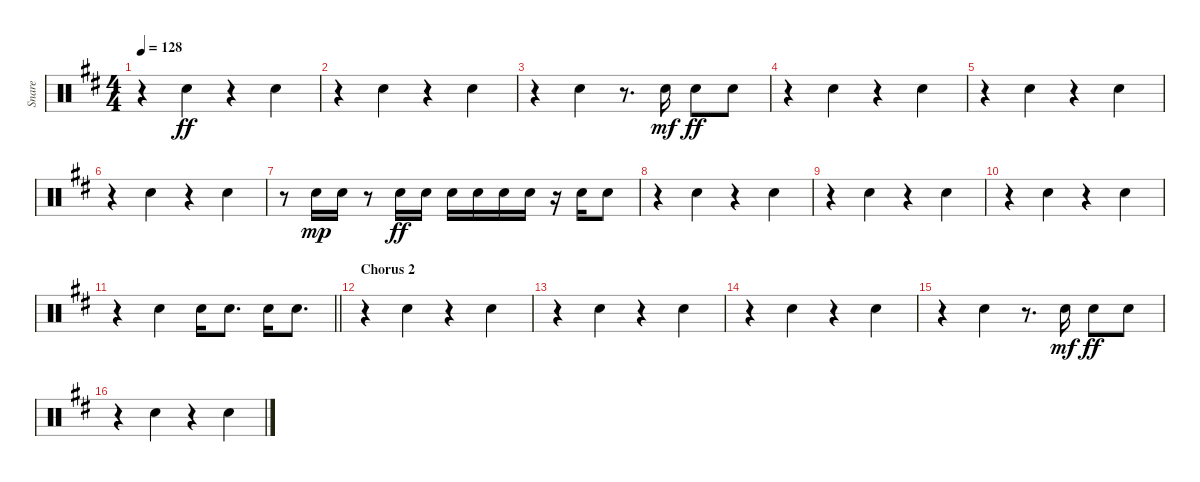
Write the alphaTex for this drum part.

\track ("Snare" "Snare") {instrument percussion}
\staff {score}
\articulation defaults
\ts (4 4)
\tempo 128
\clef neutral
\ks bminor
r.4{dy ff beam merge} "Electric Snare (hit)".4 r.4{beam merge} "Electric Snare (hit)".4 |
r.4{beam merge} "Electric Snare (hit)".4 r.4{beam merge} "Electric Snare (hit)".4 |
r.4{beam merge} "Electric Snare (hit)".4 r.8{d} "Electric Snare (hit)".16{dy mf beam split} "Electric Snare (hit)".8{dy ff} "Electric Snare (hit)".8 |
r.4{beam merge} "Electric Snare (hit)".4 r.4{beam merge} "Electric Snare (hit)".4 |
r.4{beam merge} "Electric Snare (hit)".4 r.4{beam merge} "Electric Snare (hit)".4 |
r.4{beam merge} "Electric Snare (hit)".4 r.4{beam merge} "Electric Snare (hit)".4 |
r.8 "Electric Snare (hit)".16{dy mp} "Electric Snare (hit)".16 r.8 "Electric Snare (hit)".16{dy ff} "Electric Snare (hit)".16 "Electric Snare (hit)".16 "Electric Snare (hit)".16 "Electric Snare (hit)".16 "Electric Snare (hit)".16 r.16 "Electric Snare (hit)".16 "Electric Snare (hit)".8 |
r.4{beam merge} "Electric Snare (hit)".4 r.4{beam merge} "Electric Snare (hit)".4 |
r.4{beam merge} "Electric Snare (hit)".4 r.4{beam merge} "Electric Snare (hit)".4 |
r.4{beam merge} "Electric Snare (hit)".4 r.4{beam merge} "Electric Snare (hit)".4 |
\barLineRight lightlight
r.4 "Electric Snare (hit)".4 "Electric Snare (hit)".16 "Electric Snare (hit)".8{d} "Electric Snare (hit)".16 "Electric Snare (hit)".8{d} |
\section ("" "Chorus 2")
r.4{beam merge} "Electric Snare (hit)".4 r.4{beam merge} "Electric Snare (hit)".4 |
r.4{beam merge} "Electric Snare (hit)".4 r.4{beam merge} "Electric Snare (hit)".4 |
r.4{beam merge} "Electric Snare (hit)".4 r.4{beam merge} "Electric Snare (hit)".4 |
r.4{beam merge} "Electric Snare (hit)".4 r.8{d} "Electric Snare (hit)".16{dy mf beam split} "Electric Snare (hit)".8{dy ff} "Electric Snare (hit)".8 |
r.4{beam merge} "Electric Snare (hit)".4 r.4{beam merge} "Electric Snare (hit)".4
